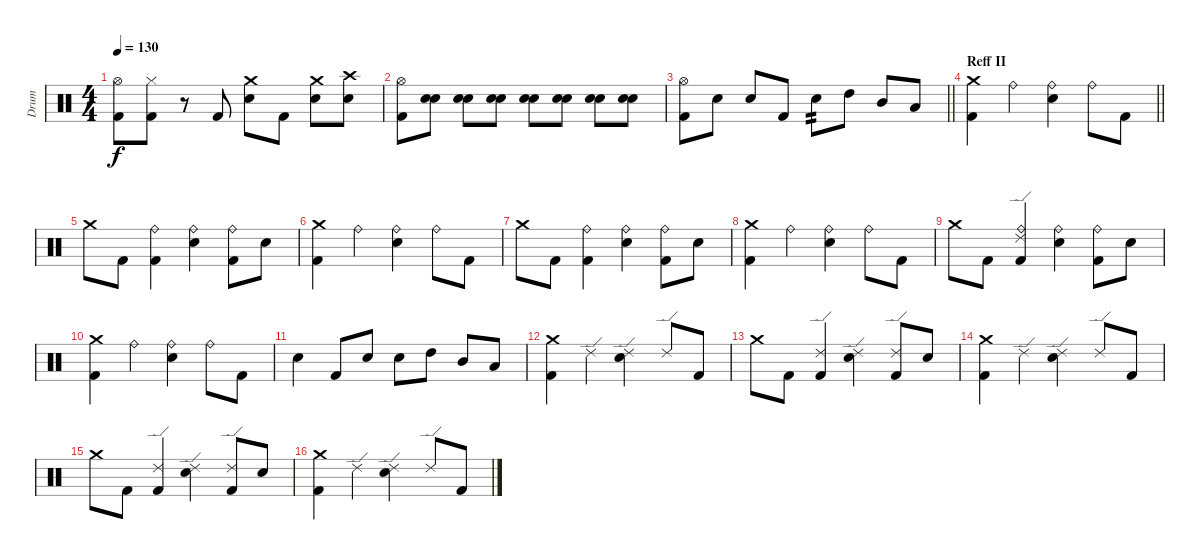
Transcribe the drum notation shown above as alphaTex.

\track ("Drum" "Drum") {instrument percussion}
\staff {score}
\articulation defaults
\ts (4 4)
\tempo 130
\clef neutral
\ks c
("Hi-Hat (open)" "Kick (hit) 2").8{dy f} ("Hi-Hat (closed)" "Kick (hit) 2").8 r.8 "Kick (hit) 2".8 ("Crash medium (hit)" "Electric Snare (hit)").8 "Kick (hit) 2".8 ("Crash medium (hit)" "Electric Snare (hit)").8 ("Crash high (hit)" "Electric Snare (hit)").8 |
("Hi-Hat (open)" "Kick (hit) 2").8 ("Electric Snare (hit)" "Electric Snare (hit)").8 ("Electric Snare (hit)" "Electric Snare (hit)").8 ("Electric Snare (hit)" "Electric Snare (hit)").8 ("Electric Snare (hit)" "Electric Snare (hit)").8 ("Electric Snare (hit)" "Electric Snare (hit)").8 ("Electric Snare (hit)" "Electric Snare (hit)").8 ("Electric Snare (hit)" "Electric Snare (hit)").8 |
\barLineRight lightlight
("Hi-Hat (open)" "Kick (hit) 2").8 "Electric Snare (hit)".8 "Electric Snare (hit)".8 "Kick (hit) 2".8 "Electric Snare (hit)".8{tp 2} "High Tom (hit)".8 "Mid Tom (hit)".8 "Low Tom (hit)".8 |
\section ("" "Reff II")
\barLineRight lightlight
("Crash medium (hit)" "Kick (hit) 2").4 "Ride (bell)".4 ("Ride (bell)" "Electric Snare (hit)").4 "Ride (bell)".8 "Kick (hit) 2".8 |
"Crash medium (hit)".8 "Kick (hit) 2".8 ("Ride (bell)" "Kick (hit) 2").4 ("Ride (bell)" "Electric Snare (hit)").4 ("Ride (bell)" "Kick (hit) 2").8 "Electric Snare (hit)".8 |
("Crash medium (hit)" "Kick (hit) 2").4 "Ride (bell)".4 ("Ride (bell)" "Electric Snare (hit)").4 "Ride (bell)".8 "Kick (hit) 2".8 |
"Crash medium (hit)".8 "Kick (hit) 2".8 ("Ride (bell)" "Kick (hit) 2").4 ("Ride (bell)" "Electric Snare (hit)").4 ("Ride (bell)" "Kick (hit) 2").8 "Electric Snare (hit)".8 |
("Crash medium (hit)" "Kick (hit) 2").4 "Ride (bell)".4 ("Ride (bell)" "Electric Snare (hit)").4 "Ride (bell)".8 "Kick (hit) 2".8 |
"Crash medium (hit)".8 "Kick (hit) 2".8 ("Ride (bell)" "Ride (edge) 2" "Kick (hit) 2").4 ("Ride (bell)" "Electric Snare (hit)").4 ("Ride (bell)" "Kick (hit) 2").8 "Electric Snare (hit)".8 |
("Crash medium (hit)" "Kick (hit) 2").4 "Ride (bell)".4 ("Ride (bell)" "Electric Snare (hit)").4 "Ride (bell)".8 "Kick (hit) 2".8 |
"Electric Snare (hit)".4 "Kick (hit) 2".8 "Electric Snare (hit)".8 "Electric Snare (hit)".8 "High Tom (hit)".8 "Mid Tom (hit)".8 "Low Tom (hit)".8 |
("Crash medium (hit)" "Kick (hit) 2").4 "Ride (edge) 2".4 ("Ride (edge) 2" "Electric Snare (hit)").4 "Ride (edge) 2".8 "Kick (hit) 2".8 |
"Crash medium (hit)".8 "Kick (hit) 2".8 ("Ride (edge) 2" "Kick (hit) 2").4 ("Ride (edge) 2" "Electric Snare (hit)").4 ("Ride (edge) 2" "Kick (hit) 2").8 "Electric Snare (hit)".8 |
("Crash medium (hit)" "Kick (hit) 2").4 "Ride (edge) 2".4 ("Ride (edge) 2" "Electric Snare (hit)").4 "Ride (edge) 2".8 "Kick (hit) 2".8 |
"Crash medium (hit)".8 "Kick (hit) 2".8 ("Ride (edge) 2" "Kick (hit) 2").4 ("Ride (edge) 2" "Electric Snare (hit)").4 ("Ride (edge) 2" "Kick (hit) 2").8 "Electric Snare (hit)".8 |
("Crash medium (hit)" "Kick (hit) 2").4 "Ride (edge) 2".4 ("Ride (edge) 2" "Electric Snare (hit)").4 "Ride (edge) 2".8 "Kick (hit) 2".8
